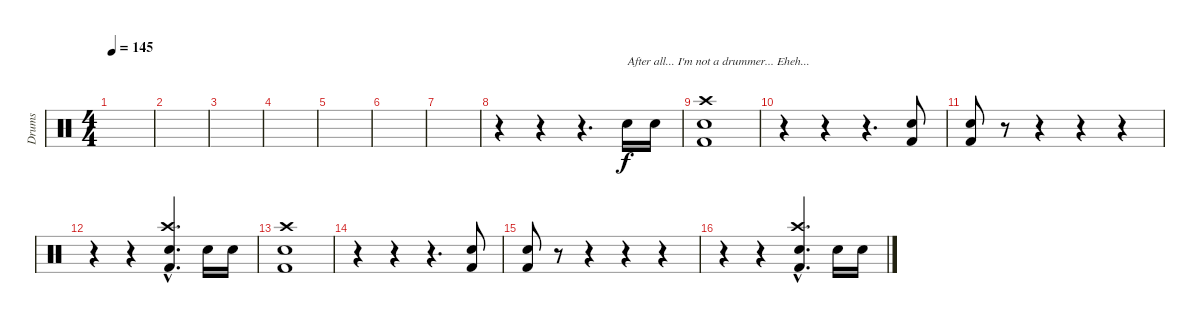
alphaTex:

\track ("Drums" "Drums") {instrument percussion}
\staff {score}
\articulation defaults
\ts (4 4)
\tempo 145
\clef neutral
\ks c
|
|
|
|
|
|
|
r.4 r.4 r.4{d} "Snare (hit) 2".16{txt "After all... I'm not a drummer... Eheh..."} "Snare (hit) 2".16 |
("Crash high (hit)" "Snare (hit) 2" "Kick (hit) 2").1 |
r.4 r.4 r.4{d} ("Snare (hit) 2" "Kick (hit) 2").8 |
("Snare (hit) 2" "Kick (hit) 2").8 r.8 r.4 r.4 r.4 |
r.4 r.4 ("Crash high (hit)"{hac} "Snare (hit) 2"{hac} "Kick (hit) 2"{hac}).4{d} "Snare (hit) 2".16 "Snare (hit) 2".16 |
("Crash high (hit)" "Snare (hit) 2" "Kick (hit) 2").1 |
r.4 r.4 r.4{d} ("Snare (hit) 2" "Kick (hit) 2").8 |
("Snare (hit) 2" "Kick (hit) 2").8 r.8 r.4 r.4 r.4 |
r.4 r.4 ("Crash high (hit)"{hac} "Snare (hit) 2"{hac} "Kick (hit) 2"{hac}).4{d} "Snare (hit) 2".16 "Snare (hit) 2".16
